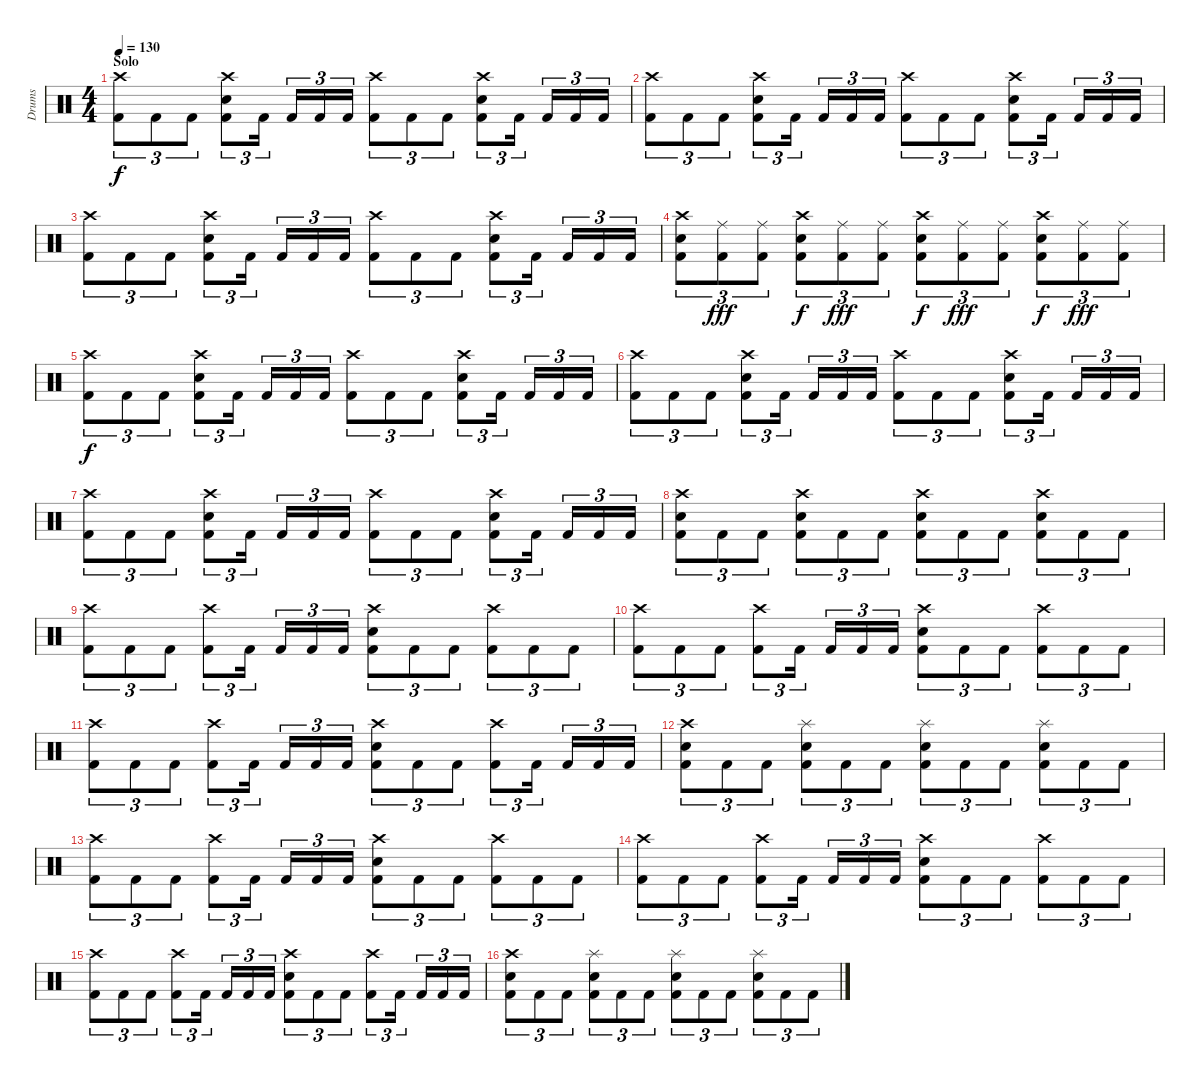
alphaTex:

\track ("Drums" "Drums") {instrument percussion}
\staff {score}
\articulation defaults
\ts (4 4)
\section ("" "Solo")
\tempo 130
\clef neutral
\ks c
("Crash high (hit)" "Kick (hit) 2").8{tu (3 2) dy f} "Kick (hit) 2".8{tu (3 2)} "Kick (hit) 2".8{tu (3 2)} ("Crash high (hit)" "Electric Snare (hit)" "Kick (hit) 2").8{tu (3 2)} "Kick (hit) 2".16{tu (3 2) beam splitsecondary} "Kick (hit) 2".16{tu (3 2)} "Kick (hit) 2".16{tu (3 2)} "Kick (hit) 2".16{tu (3 2)} ("Crash high (hit)" "Kick (hit) 2").8{tu (3 2)} "Kick (hit) 2".8{tu (3 2)} "Kick (hit) 2".8{tu (3 2)} ("Crash high (hit)" "Electric Snare (hit)" "Kick (hit) 2").8{tu (3 2)} "Kick (hit) 2".16{tu (3 2) beam splitsecondary} "Kick (hit) 2".16{tu (3 2)} "Kick (hit) 2".16{tu (3 2)} "Kick (hit) 2".16{tu (3 2)} |
("Crash high (hit)" "Kick (hit) 2").8{tu (3 2)} "Kick (hit) 2".8{tu (3 2)} "Kick (hit) 2".8{tu (3 2)} ("Crash high (hit)" "Electric Snare (hit)" "Kick (hit) 2").8{tu (3 2)} "Kick (hit) 2".16{tu (3 2) beam splitsecondary} "Kick (hit) 2".16{tu (3 2)} "Kick (hit) 2".16{tu (3 2)} "Kick (hit) 2".16{tu (3 2)} ("Crash high (hit)" "Kick (hit) 2").8{tu (3 2)} "Kick (hit) 2".8{tu (3 2)} "Kick (hit) 2".8{tu (3 2)} ("Crash high (hit)" "Electric Snare (hit)" "Kick (hit) 2").8{tu (3 2)} "Kick (hit) 2".16{tu (3 2) beam splitsecondary} "Kick (hit) 2".16{tu (3 2)} "Kick (hit) 2".16{tu (3 2)} "Kick (hit) 2".16{tu (3 2)} |
("Crash high (hit)" "Kick (hit) 2").8{tu (3 2)} "Kick (hit) 2".8{tu (3 2)} "Kick (hit) 2".8{tu (3 2)} ("Crash high (hit)" "Electric Snare (hit)" "Kick (hit) 2").8{tu (3 2)} "Kick (hit) 2".16{tu (3 2) beam splitsecondary} "Kick (hit) 2".16{tu (3 2)} "Kick (hit) 2".16{tu (3 2)} "Kick (hit) 2".16{tu (3 2)} ("Crash high (hit)" "Kick (hit) 2").8{tu (3 2)} "Kick (hit) 2".8{tu (3 2)} "Kick (hit) 2".8{tu (3 2)} ("Crash high (hit)" "Electric Snare (hit)" "Kick (hit) 2").8{tu (3 2)} "Kick (hit) 2".16{tu (3 2) beam splitsecondary} "Kick (hit) 2".16{tu (3 2)} "Kick (hit) 2".16{tu (3 2)} "Kick (hit) 2".16{tu (3 2)} |
("Crash high (hit)" "Electric Snare (hit)" "Kick (hit) 2").8{tu (3 2)} ("Ride (middle)" "Kick (hit) 2").8{tu (3 2) dy fff} ("Ride (middle)" "Kick (hit) 2").8{tu (3 2)} ("Crash high (hit)" "Electric Snare (hit)" "Kick (hit) 2").8{tu (3 2) dy f} ("Ride (middle)" "Kick (hit) 2").8{tu (3 2) dy fff} ("Ride (middle)" "Kick (hit) 2").8{tu (3 2)} ("Crash high (hit)" "Electric Snare (hit)" "Kick (hit) 2").8{tu (3 2) dy f} ("Ride (middle)" "Kick (hit) 2").8{tu (3 2) dy fff} ("Ride (middle)" "Kick (hit) 2").8{tu (3 2)} ("Crash high (hit)" "Electric Snare (hit)" "Kick (hit) 2").8{tu (3 2) dy f} ("Ride (middle)" "Kick (hit) 2").8{tu (3 2) dy fff} ("Ride (middle)" "Kick (hit) 2").8{tu (3 2)} |
("Crash high (hit)" "Kick (hit) 2").8{tu (3 2) dy f} "Kick (hit) 2".8{tu (3 2)} "Kick (hit) 2".8{tu (3 2)} ("Crash high (hit)" "Electric Snare (hit)" "Kick (hit) 2").8{tu (3 2)} "Kick (hit) 2".16{tu (3 2) beam splitsecondary} "Kick (hit) 2".16{tu (3 2)} "Kick (hit) 2".16{tu (3 2)} "Kick (hit) 2".16{tu (3 2)} ("Crash high (hit)" "Kick (hit) 2").8{tu (3 2)} "Kick (hit) 2".8{tu (3 2)} "Kick (hit) 2".8{tu (3 2)} ("Crash high (hit)" "Electric Snare (hit)" "Kick (hit) 2").8{tu (3 2)} "Kick (hit) 2".16{tu (3 2) beam splitsecondary} "Kick (hit) 2".16{tu (3 2)} "Kick (hit) 2".16{tu (3 2)} "Kick (hit) 2".16{tu (3 2)} |
("Crash high (hit)" "Kick (hit) 2").8{tu (3 2)} "Kick (hit) 2".8{tu (3 2)} "Kick (hit) 2".8{tu (3 2)} ("Crash high (hit)" "Electric Snare (hit)" "Kick (hit) 2").8{tu (3 2)} "Kick (hit) 2".16{tu (3 2) beam splitsecondary} "Kick (hit) 2".16{tu (3 2)} "Kick (hit) 2".16{tu (3 2)} "Kick (hit) 2".16{tu (3 2)} ("Crash high (hit)" "Kick (hit) 2").8{tu (3 2)} "Kick (hit) 2".8{tu (3 2)} "Kick (hit) 2".8{tu (3 2)} ("Crash high (hit)" "Electric Snare (hit)" "Kick (hit) 2").8{tu (3 2)} "Kick (hit) 2".16{tu (3 2) beam splitsecondary} "Kick (hit) 2".16{tu (3 2)} "Kick (hit) 2".16{tu (3 2)} "Kick (hit) 2".16{tu (3 2)} |
("Crash high (hit)" "Kick (hit) 2").8{tu (3 2)} "Kick (hit) 2".8{tu (3 2)} "Kick (hit) 2".8{tu (3 2)} ("Crash high (hit)" "Electric Snare (hit)" "Kick (hit) 2").8{tu (3 2)} "Kick (hit) 2".16{tu (3 2) beam splitsecondary} "Kick (hit) 2".16{tu (3 2)} "Kick (hit) 2".16{tu (3 2)} "Kick (hit) 2".16{tu (3 2)} ("Crash high (hit)" "Kick (hit) 2").8{tu (3 2)} "Kick (hit) 2".8{tu (3 2)} "Kick (hit) 2".8{tu (3 2)} ("Crash high (hit)" "Electric Snare (hit)" "Kick (hit) 2").8{tu (3 2)} "Kick (hit) 2".16{tu (3 2) beam splitsecondary} "Kick (hit) 2".16{tu (3 2)} "Kick (hit) 2".16{tu (3 2)} "Kick (hit) 2".16{tu (3 2)} |
("Crash high (hit)" "Electric Snare (hit)" "Kick (hit) 2").8{tu (3 2)} "Kick (hit) 2".8{tu (3 2)} "Kick (hit) 2".8{tu (3 2)} ("Crash high (hit)" "Electric Snare (hit)" "Kick (hit) 2").8{tu (3 2)} "Kick (hit) 2".8{tu (3 2)} "Kick (hit) 2".8{tu (3 2)} ("Crash high (hit)" "Electric Snare (hit)" "Kick (hit) 2").8{tu (3 2)} "Kick (hit) 2".8{tu (3 2)} "Kick (hit) 2".8{tu (3 2)} ("Crash high (hit)" "Electric Snare (hit)" "Kick (hit) 2").8{tu (3 2)} "Kick (hit) 2".8{tu (3 2)} "Kick (hit) 2".8{tu (3 2)} |
("Crash high (hit)" "Kick (hit) 2").8{tu (3 2)} "Kick (hit) 2".8{tu (3 2)} "Kick (hit) 2".8{tu (3 2)} ("Crash high (hit)" "Kick (hit) 2").8{tu (3 2)} "Kick (hit) 2".16{tu (3 2) beam splitsecondary} "Kick (hit) 2".16{tu (3 2)} "Kick (hit) 2".16{tu (3 2)} "Kick (hit) 2".16{tu (3 2)} ("Crash high (hit)" "Electric Snare (hit)" "Kick (hit) 2").8{tu (3 2)} "Kick (hit) 2".8{tu (3 2)} "Kick (hit) 2".8{tu (3 2)} ("Crash high (hit)" "Kick (hit) 2").8{tu (3 2)} "Kick (hit) 2".8{tu (3 2)} "Kick (hit) 2".8{tu (3 2)} |
("Crash high (hit)" "Kick (hit) 2").8{tu (3 2)} "Kick (hit) 2".8{tu (3 2)} "Kick (hit) 2".8{tu (3 2)} ("Crash high (hit)" "Kick (hit) 2").8{tu (3 2)} "Kick (hit) 2".16{tu (3 2) beam splitsecondary} "Kick (hit) 2".16{tu (3 2)} "Kick (hit) 2".16{tu (3 2)} "Kick (hit) 2".16{tu (3 2)} ("Crash high (hit)" "Electric Snare (hit)" "Kick (hit) 2").8{tu (3 2)} "Kick (hit) 2".8{tu (3 2)} "Kick (hit) 2".8{tu (3 2)} ("Crash high (hit)" "Kick (hit) 2").8{tu (3 2)} "Kick (hit) 2".8{tu (3 2)} "Kick (hit) 2".8{tu (3 2)} |
("Crash high (hit)" "Kick (hit) 2").8{tu (3 2)} "Kick (hit) 2".8{tu (3 2)} "Kick (hit) 2".8{tu (3 2)} ("Crash high (hit)" "Kick (hit) 2").8{tu (3 2)} "Kick (hit) 2".16{tu (3 2) beam splitsecondary} "Kick (hit) 2".16{tu (3 2)} "Kick (hit) 2".16{tu (3 2)} "Kick (hit) 2".16{tu (3 2)} ("Crash high (hit)" "Electric Snare (hit)" "Kick (hit) 2").8{tu (3 2)} "Kick (hit) 2".8{tu (3 2)} "Kick (hit) 2".8{tu (3 2)} ("Crash high (hit)" "Kick (hit) 2").8{tu (3 2)} "Kick (hit) 2".16{tu (3 2) beam splitsecondary} "Kick (hit) 2".16{tu (3 2)} "Kick (hit) 2".16{tu (3 2)} "Kick (hit) 2".16{tu (3 2)} |
("Crash high (hit)" "Electric Snare (hit)" "Kick (hit) 2").8{tu (3 2)} "Kick (hit) 2".8{tu (3 2)} "Kick (hit) 2".8{tu (3 2)} ("Splash (hit)" "Electric Snare (hit)" "Kick (hit) 2").8{tu (3 2)} "Kick (hit) 2".8{tu (3 2)} "Kick (hit) 2".8{tu (3 2)} ("Splash (hit)" "Electric Snare (hit)" "Kick (hit) 2").8{tu (3 2)} "Kick (hit) 2".8{tu (3 2)} "Kick (hit) 2".8{tu (3 2)} ("Splash (hit)" "Electric Snare (hit)" "Kick (hit) 2").8{tu (3 2)} "Kick (hit) 2".8{tu (3 2)} "Kick (hit) 2".8{tu (3 2)} |
("Crash high (hit)" "Kick (hit) 2").8{tu (3 2)} "Kick (hit) 2".8{tu (3 2)} "Kick (hit) 2".8{tu (3 2)} ("Crash high (hit)" "Kick (hit) 2").8{tu (3 2)} "Kick (hit) 2".16{tu (3 2) beam splitsecondary} "Kick (hit) 2".16{tu (3 2)} "Kick (hit) 2".16{tu (3 2)} "Kick (hit) 2".16{tu (3 2)} ("Crash high (hit)" "Electric Snare (hit)" "Kick (hit) 2").8{tu (3 2)} "Kick (hit) 2".8{tu (3 2)} "Kick (hit) 2".8{tu (3 2)} ("Crash high (hit)" "Kick (hit) 2").8{tu (3 2)} "Kick (hit) 2".8{tu (3 2)} "Kick (hit) 2".8{tu (3 2)} |
("Crash high (hit)" "Kick (hit) 2").8{tu (3 2)} "Kick (hit) 2".8{tu (3 2)} "Kick (hit) 2".8{tu (3 2)} ("Crash high (hit)" "Kick (hit) 2").8{tu (3 2)} "Kick (hit) 2".16{tu (3 2) beam splitsecondary} "Kick (hit) 2".16{tu (3 2)} "Kick (hit) 2".16{tu (3 2)} "Kick (hit) 2".16{tu (3 2)} ("Crash high (hit)" "Electric Snare (hit)" "Kick (hit) 2").8{tu (3 2)} "Kick (hit) 2".8{tu (3 2)} "Kick (hit) 2".8{tu (3 2)} ("Crash high (hit)" "Kick (hit) 2").8{tu (3 2)} "Kick (hit) 2".8{tu (3 2)} "Kick (hit) 2".8{tu (3 2)} |
("Crash high (hit)" "Kick (hit) 2").8{tu (3 2)} "Kick (hit) 2".8{tu (3 2)} "Kick (hit) 2".8{tu (3 2)} ("Crash high (hit)" "Kick (hit) 2").8{tu (3 2)} "Kick (hit) 2".16{tu (3 2) beam splitsecondary} "Kick (hit) 2".16{tu (3 2)} "Kick (hit) 2".16{tu (3 2)} "Kick (hit) 2".16{tu (3 2)} ("Crash high (hit)" "Electric Snare (hit)" "Kick (hit) 2").8{tu (3 2)} "Kick (hit) 2".8{tu (3 2)} "Kick (hit) 2".8{tu (3 2)} ("Crash high (hit)" "Kick (hit) 2").8{tu (3 2)} "Kick (hit) 2".16{tu (3 2) beam splitsecondary} "Kick (hit) 2".16{tu (3 2)} "Kick (hit) 2".16{tu (3 2)} "Kick (hit) 2".16{tu (3 2)} |
("Crash high (hit)" "Electric Snare (hit)" "Kick (hit) 2").8{tu (3 2)} "Kick (hit) 2".8{tu (3 2)} "Kick (hit) 2".8{tu (3 2)} ("Splash (hit)" "Electric Snare (hit)" "Kick (hit) 2").8{tu (3 2)} "Kick (hit) 2".8{tu (3 2)} "Kick (hit) 2".8{tu (3 2)} ("Splash (hit)" "Electric Snare (hit)" "Kick (hit) 2").8{tu (3 2)} "Kick (hit) 2".8{tu (3 2)} "Kick (hit) 2".8{tu (3 2)} ("Splash (hit)" "Electric Snare (hit)" "Kick (hit) 2").8{tu (3 2)} "Kick (hit) 2".8{tu (3 2)} "Kick (hit) 2".8{tu (3 2)}
